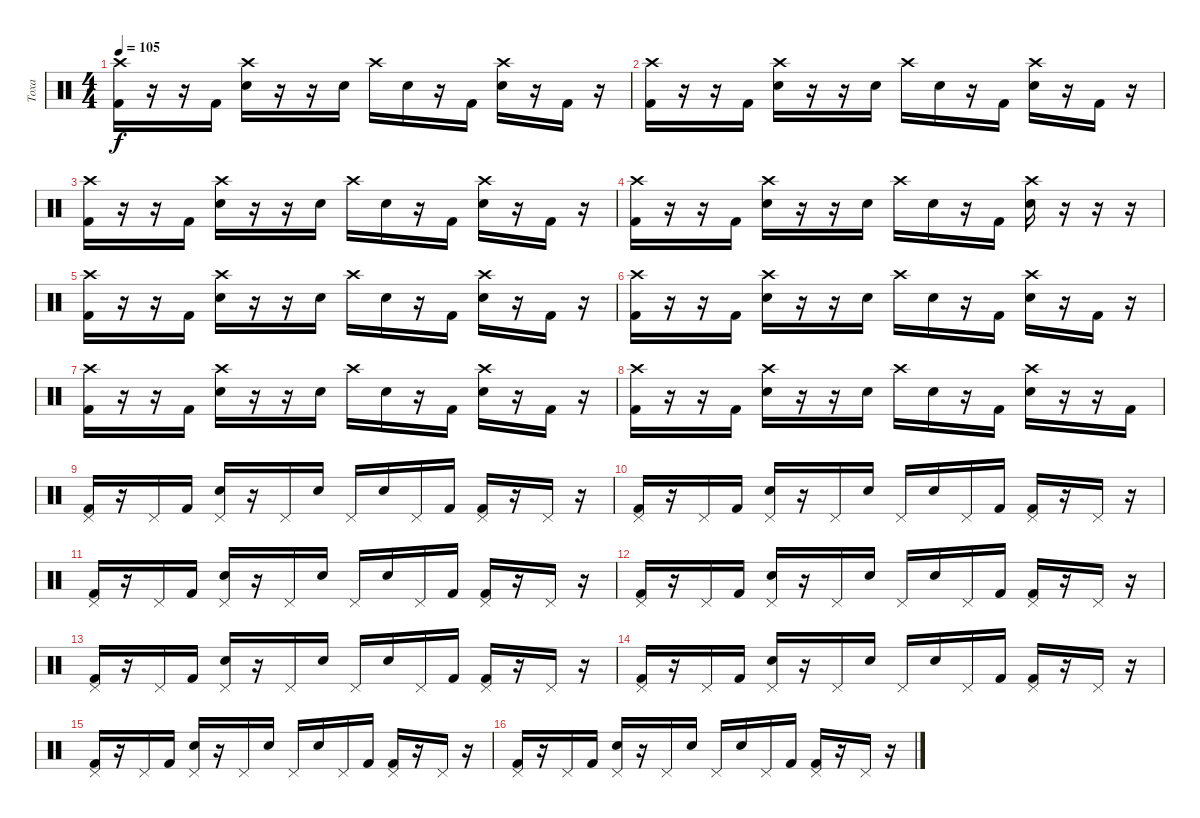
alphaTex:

\track ("Toxa" "Toxa") {instrument percussion}
\staff {score}
\articulation defaults
\ts (4 4)
\tempo 105
\clef neutral
\ks c
("Crash high (hit)" "Kick (hit) 2").16{dy f} r.16 r.16 "Kick (hit) 2".16 ("Crash high (hit)" "Electric Snare (hit)").16 r.16 r.16 "Electric Snare (hit)".16 "Crash high (hit)".16 "Electric Snare (hit)".16 r.16 "Kick (hit) 2".16 ("Crash high (hit)" "Electric Snare (hit)").16 r.16 "Kick (hit) 2".16 r.16 |
("Crash high (hit)" "Kick (hit) 2").16 r.16 r.16 "Kick (hit) 2".16 ("Crash high (hit)" "Electric Snare (hit)").16 r.16 r.16 "Electric Snare (hit)".16 "Crash high (hit)".16 "Electric Snare (hit)".16 r.16 "Kick (hit) 2".16 ("Crash high (hit)" "Electric Snare (hit)").16 r.16 "Kick (hit) 2".16 r.16 |
("Crash high (hit)" "Kick (hit) 2").16 r.16 r.16 "Kick (hit) 2".16 ("Crash high (hit)" "Electric Snare (hit)").16 r.16 r.16 "Electric Snare (hit)".16 "Crash high (hit)".16 "Electric Snare (hit)".16 r.16 "Kick (hit) 2".16 ("Crash high (hit)" "Electric Snare (hit)").16 r.16 "Kick (hit) 2".16 r.16 |
("Crash high (hit)" "Kick (hit) 2").16 r.16 r.16 "Kick (hit) 2".16 ("Crash high (hit)" "Electric Snare (hit)").16 r.16 r.16 "Electric Snare (hit)".16 "Crash high (hit)".16 "Electric Snare (hit)".16 r.16 "Kick (hit) 2".16 ("Crash high (hit)" "Electric Snare (hit)").16 r.16 r.16 r.16 |
("Crash high (hit)" "Kick (hit) 2").16 r.16 r.16 "Kick (hit) 2".16 ("Crash high (hit)" "Electric Snare (hit)").16 r.16 r.16 "Electric Snare (hit)".16 "Crash high (hit)".16 "Electric Snare (hit)".16 r.16 "Kick (hit) 2".16 ("Crash high (hit)" "Electric Snare (hit)").16 r.16 "Kick (hit) 2".16 r.16 |
("Crash high (hit)" "Kick (hit) 2").16 r.16 r.16 "Kick (hit) 2".16 ("Crash high (hit)" "Electric Snare (hit)").16 r.16 r.16 "Electric Snare (hit)".16 "Crash high (hit)".16 "Electric Snare (hit)".16 r.16 "Kick (hit) 2".16 ("Crash high (hit)" "Electric Snare (hit)").16 r.16 "Kick (hit) 2".16 r.16 |
("Crash high (hit)" "Kick (hit) 2").16 r.16 r.16 "Kick (hit) 2".16 ("Crash high (hit)" "Electric Snare (hit)").16 r.16 r.16 "Electric Snare (hit)".16 "Crash high (hit)".16 "Electric Snare (hit)".16 r.16 "Kick (hit) 2".16 ("Crash high (hit)" "Electric Snare (hit)").16 r.16 "Kick (hit) 2".16 r.16 |
("Crash high (hit)" "Kick (hit) 2").16 r.16 r.16 "Kick (hit) 2".16 ("Crash high (hit)" "Electric Snare (hit)").16 r.16 r.16 "Electric Snare (hit)".16 "Crash high (hit)".16 "Electric Snare (hit)".16 r.16 "Kick (hit) 2".16 ("Crash high (hit)" "Electric Snare (hit)").16 r.16 r.16 "Kick (hit) 2".16 |
("Pedal Hi-Hat (hit)" "Kick (hit) 2").16 r.16 "Pedal Hi-Hat (hit)".16 "Kick (hit) 2".16 ("Pedal Hi-Hat (hit)" "Electric Snare (hit)").16 r.16 "Pedal Hi-Hat (hit)".16 "Electric Snare (hit)".16 "Pedal Hi-Hat (hit)".16 "Electric Snare (hit)".16 "Pedal Hi-Hat (hit)".16 "Kick (hit) 2".16 ("Pedal Hi-Hat (hit)" "Kick (hit) 2").16 r.16 "Pedal Hi-Hat (hit)".16 r.16 |
("Pedal Hi-Hat (hit)" "Kick (hit) 2").16 r.16 "Pedal Hi-Hat (hit)".16 "Kick (hit) 2".16 ("Pedal Hi-Hat (hit)" "Electric Snare (hit)").16 r.16 "Pedal Hi-Hat (hit)".16 "Electric Snare (hit)".16 "Pedal Hi-Hat (hit)".16 "Electric Snare (hit)".16 "Pedal Hi-Hat (hit)".16 "Kick (hit) 2".16 ("Pedal Hi-Hat (hit)" "Kick (hit) 2").16 r.16 "Pedal Hi-Hat (hit)".16 r.16 |
("Pedal Hi-Hat (hit)" "Kick (hit) 2").16 r.16 "Pedal Hi-Hat (hit)".16 "Kick (hit) 2".16 ("Pedal Hi-Hat (hit)" "Electric Snare (hit)").16 r.16 "Pedal Hi-Hat (hit)".16 "Electric Snare (hit)".16 "Pedal Hi-Hat (hit)".16 "Electric Snare (hit)".16 "Pedal Hi-Hat (hit)".16 "Kick (hit) 2".16 ("Pedal Hi-Hat (hit)" "Kick (hit) 2").16 r.16 "Pedal Hi-Hat (hit)".16 r.16 |
("Pedal Hi-Hat (hit)" "Kick (hit) 2").16 r.16 "Pedal Hi-Hat (hit)".16 "Kick (hit) 2".16 ("Pedal Hi-Hat (hit)" "Electric Snare (hit)").16 r.16 "Pedal Hi-Hat (hit)".16 "Electric Snare (hit)".16 "Pedal Hi-Hat (hit)".16 "Electric Snare (hit)".16 "Pedal Hi-Hat (hit)".16 "Kick (hit) 2".16 ("Pedal Hi-Hat (hit)" "Kick (hit) 2").16 r.16 "Pedal Hi-Hat (hit)".16 r.16 |
("Pedal Hi-Hat (hit)" "Kick (hit) 2").16 r.16 "Pedal Hi-Hat (hit)".16 "Kick (hit) 2".16 ("Pedal Hi-Hat (hit)" "Electric Snare (hit)").16 r.16 "Pedal Hi-Hat (hit)".16 "Electric Snare (hit)".16 "Pedal Hi-Hat (hit)".16 "Electric Snare (hit)".16 "Pedal Hi-Hat (hit)".16 "Kick (hit) 2".16 ("Pedal Hi-Hat (hit)" "Kick (hit) 2").16 r.16 "Pedal Hi-Hat (hit)".16 r.16 |
("Pedal Hi-Hat (hit)" "Kick (hit) 2").16 r.16 "Pedal Hi-Hat (hit)".16 "Kick (hit) 2".16 ("Pedal Hi-Hat (hit)" "Electric Snare (hit)").16 r.16 "Pedal Hi-Hat (hit)".16 "Electric Snare (hit)".16 "Pedal Hi-Hat (hit)".16 "Electric Snare (hit)".16 "Pedal Hi-Hat (hit)".16 "Kick (hit) 2".16 ("Pedal Hi-Hat (hit)" "Kick (hit) 2").16 r.16 "Pedal Hi-Hat (hit)".16 r.16 |
("Pedal Hi-Hat (hit)" "Kick (hit) 2").16 r.16 "Pedal Hi-Hat (hit)".16 "Kick (hit) 2".16 ("Pedal Hi-Hat (hit)" "Electric Snare (hit)").16 r.16 "Pedal Hi-Hat (hit)".16 "Electric Snare (hit)".16 "Pedal Hi-Hat (hit)".16 "Electric Snare (hit)".16 "Pedal Hi-Hat (hit)".16 "Kick (hit) 2".16 ("Pedal Hi-Hat (hit)" "Kick (hit) 2").16 r.16 "Pedal Hi-Hat (hit)".16 r.16 |
("Pedal Hi-Hat (hit)" "Kick (hit) 2").16 r.16 "Pedal Hi-Hat (hit)".16 "Kick (hit) 2".16 ("Pedal Hi-Hat (hit)" "Electric Snare (hit)").16 r.16 "Pedal Hi-Hat (hit)".16 "Electric Snare (hit)".16 "Pedal Hi-Hat (hit)".16 "Electric Snare (hit)".16 "Pedal Hi-Hat (hit)".16 "Kick (hit) 2".16 ("Pedal Hi-Hat (hit)" "Kick (hit) 2").16 r.16 "Pedal Hi-Hat (hit)".16 r.16
